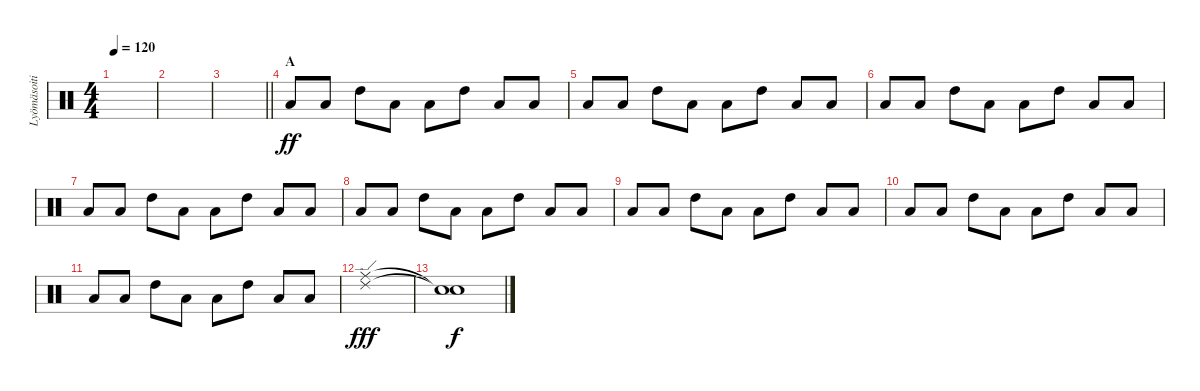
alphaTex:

\track ("Lyömäsoitin" "Lyömäsoiti") {instrument percussion}
\staff {score}
\articulation defaults
\ts (4 4)
\tempo 120
\clef neutral
\ks c
|
|
\barLineRight lightlight
|
\section ("" "A")
"Low Tom (hit)".8{dy ff volume 10} "Low Tom (hit)".8 "High Tom (hit)".8 "Low Tom (hit)".8 "Low Tom (hit)".8 "High Tom (hit)".8 "Low Tom (hit)".8 "Low Tom (hit)".8 |
"Low Tom (hit)".8 "Low Tom (hit)".8 "High Tom (hit)".8 "Low Tom (hit)".8 "Low Tom (hit)".8 "High Tom (hit)".8 "Low Tom (hit)".8 "Low Tom (hit)".8 |
"Low Tom (hit)".8 "Low Tom (hit)".8 "High Tom (hit)".8 "Low Tom (hit)".8 "Low Tom (hit)".8 "High Tom (hit)".8 "Low Tom (hit)".8 "Low Tom (hit)".8 |
"Low Tom (hit)".8 "Low Tom (hit)".8 "High Tom (hit)".8 "Low Tom (hit)".8 "Low Tom (hit)".8 "High Tom (hit)".8 "Low Tom (hit)".8 "Low Tom (hit)".8 |
"Low Tom (hit)".8 "Low Tom (hit)".8 "High Tom (hit)".8 "Low Tom (hit)".8 "Low Tom (hit)".8 "High Tom (hit)".8 "Low Tom (hit)".8 "Low Tom (hit)".8 |
"Low Tom (hit)".8 "Low Tom (hit)".8 "High Tom (hit)".8 "Low Tom (hit)".8 "Low Tom (hit)".8 "High Tom (hit)".8 "Low Tom (hit)".8 "Low Tom (hit)".8 |
"Low Tom (hit)".8 "Low Tom (hit)".8 "High Tom (hit)".8 "Low Tom (hit)".8 "Low Tom (hit)".8 "High Tom (hit)".8 "Low Tom (hit)".8 "Low Tom (hit)".8 |
"Low Tom (hit)".8 "Low Tom (hit)".8 "High Tom (hit)".8 "Low Tom (hit)".8 "Low Tom (hit)".8 "High Tom (hit)".8 "Low Tom (hit)".8 "Low Tom (hit)".8 |
("Ride (edge) 2" "Ride (middle)").1{dy fff} |
("Snare (hit)"{t} "Snare (hit)"{t}).1{dy f}
